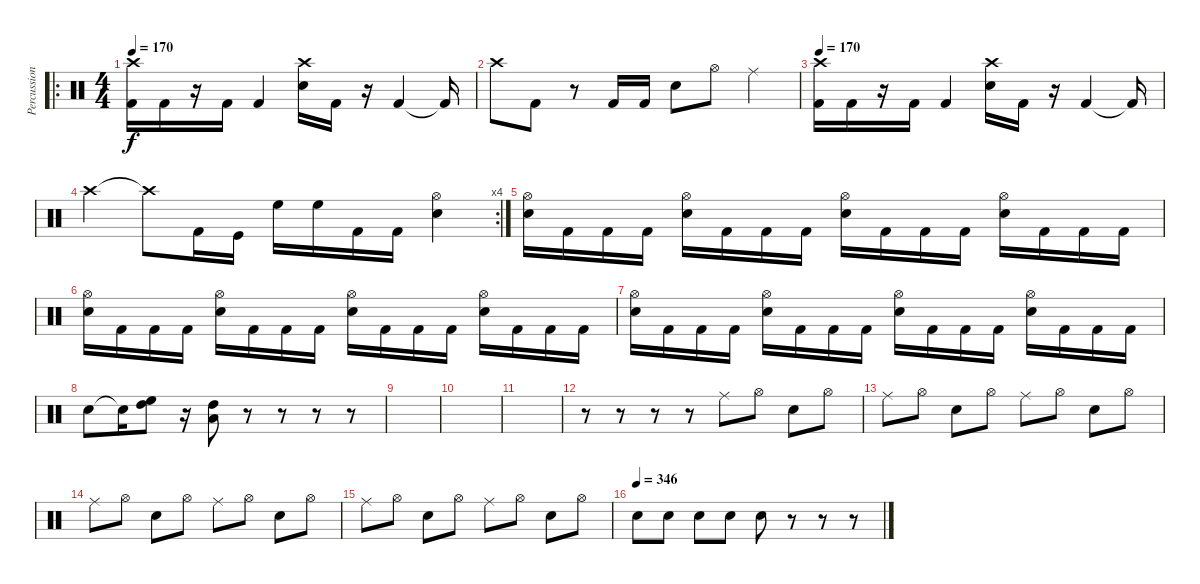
\track ("Percussion" "Percussion") {instrument percussion}
\staff {score}
\articulation defaults
\ro
\ts (4 4)
\tempo 170
\clef neutral
\ks c
("Crash high (hit)" "Kick (hit) 2").16{dy f} "Kick (hit) 2".16 r.16 "Kick (hit) 2".16 "Kick (hit) 2".4 ("Crash high (hit)" "Snare (hit) 2").16 "Kick (hit) 2".16 r.16 "Kick (hit) 2".4 "Kick (hit) 2"{t}.16 |
"Crash high (hit)".8 "Kick (hit) 2".8 r.8 "Kick (hit) 2".16 "Kick (hit) 2".16 "Snare (hit) 2".8 "Hi-Hat (open)".8 "Ride (middle)".4 |
\tempo 170
("Crash high (hit)" "Kick (hit) 2").16 "Kick (hit) 2".16 r.16 "Kick (hit) 2".16 "Kick (hit) 2".4 ("Crash high (hit)" "Snare (hit) 2").16 "Kick (hit) 2".16 r.16 "Kick (hit) 2".4 "Kick (hit) 2"{t}.16 |
\rc 4 "Crash high (hit)".4 "Crash high (hit)"{t}.8 "Kick (hit) 2".16 "Kick (hit)".16 "High Floor Tom (hit)".16 "High Floor Tom (hit)".16 "Kick (hit) 2".16 "Kick (hit) 2".16
("Hi-Hat (open)" "Snare (hit) 2").4 |
("Hi-Hat (open)" "Snare (hit) 2").16 "Kick (hit) 2".16 "Kick (hit) 2".16 "Kick (hit) 2".16 ("Hi-Hat (open)" "Snare (hit) 2").16 "Kick (hit) 2".16 "Kick (hit) 2".16 "Kick (hit) 2".16 ("Hi-Hat (open)" "Snare (hit) 2").16 "Kick (hit) 2".16 "Kick (hit) 2".16 "Kick (hit) 2".16 ("Hi-Hat (open)" "Snare (hit) 2").16 "Kick (hit) 2".16 "Kick (hit) 2".16 "Kick (hit) 2".16 |
("Hi-Hat (open)" "Snare (hit) 2").16 "Kick (hit) 2".16 "Kick (hit) 2".16 "Kick (hit) 2".16 ("Hi-Hat (open)" "Snare (hit) 2").16 "Kick (hit) 2".16 "Kick (hit) 2".16 "Kick (hit) 2".16 ("Hi-Hat (open)" "Snare (hit) 2").16 "Kick (hit) 2".16 "Kick (hit) 2".16 "Kick (hit) 2".16 ("Hi-Hat (open)" "Snare (hit) 2").16 "Kick (hit) 2".16 "Kick (hit) 2".16 "Kick (hit) 2".16 |
("Hi-Hat (open)" "Snare (hit) 2").16 "Kick (hit) 2".16 "Kick (hit) 2".16 "Kick (hit) 2".16 ("Hi-Hat (open)" "Snare (hit) 2").16 "Kick (hit) 2".16 "Kick (hit) 2".16 "Kick (hit) 2".16 ("Hi-Hat (open)" "Snare (hit) 2").16 "Kick (hit) 2".16 "Kick (hit) 2".16 "Kick (hit) 2".16 ("Hi-Hat (open)" "Snare (hit) 2").16 "Kick (hit) 2".16 "Kick (hit) 2".16 "Kick (hit) 2".16 |
"Snare (hit) 2".8 "Snare (hit) 2"{t}.16 ("High Tom (hit)" "High Floor Tom (hit)").8 r.16 ("Low Floor Tom (hit)" "High Tom (hit)").8 r.8 r.8 r.8 r.8 |
|
|
|
r.8 r.8 r.8 r.8 "Ride (middle)".8 "Hi-Hat (open)".8 "Snare (hit) 2".8 "Hi-Hat (open)".8 |
"Ride (middle)".8 "Hi-Hat (open)".8 "Snare (hit) 2".8 "Hi-Hat (open)".8 "Ride (middle)".8 "Hi-Hat (open)".8 "Snare (hit) 2".8 "Hi-Hat (open)".8 |
"Ride (middle)".8 "Hi-Hat (open)".8 "Snare (hit) 2".8 "Hi-Hat (open)".8 "Ride (middle)".8 "Hi-Hat (open)".8 "Snare (hit) 2".8 "Hi-Hat (open)".8 |
"Ride (middle)".8 "Hi-Hat (open)".8 "Snare (hit) 2".8 "Hi-Hat (open)".8 "Ride (middle)".8 "Hi-Hat (open)".8 "Snare (hit) 2".8 "Hi-Hat (open)".8 |
\tempo 240
\tempo (346)
"Snare (hit) 2".8 "Snare (hit) 2".8 "Snare (hit) 2".8 "Snare (hit) 2".8 "Snare (hit) 2".8 r.8 r.8 r.8
